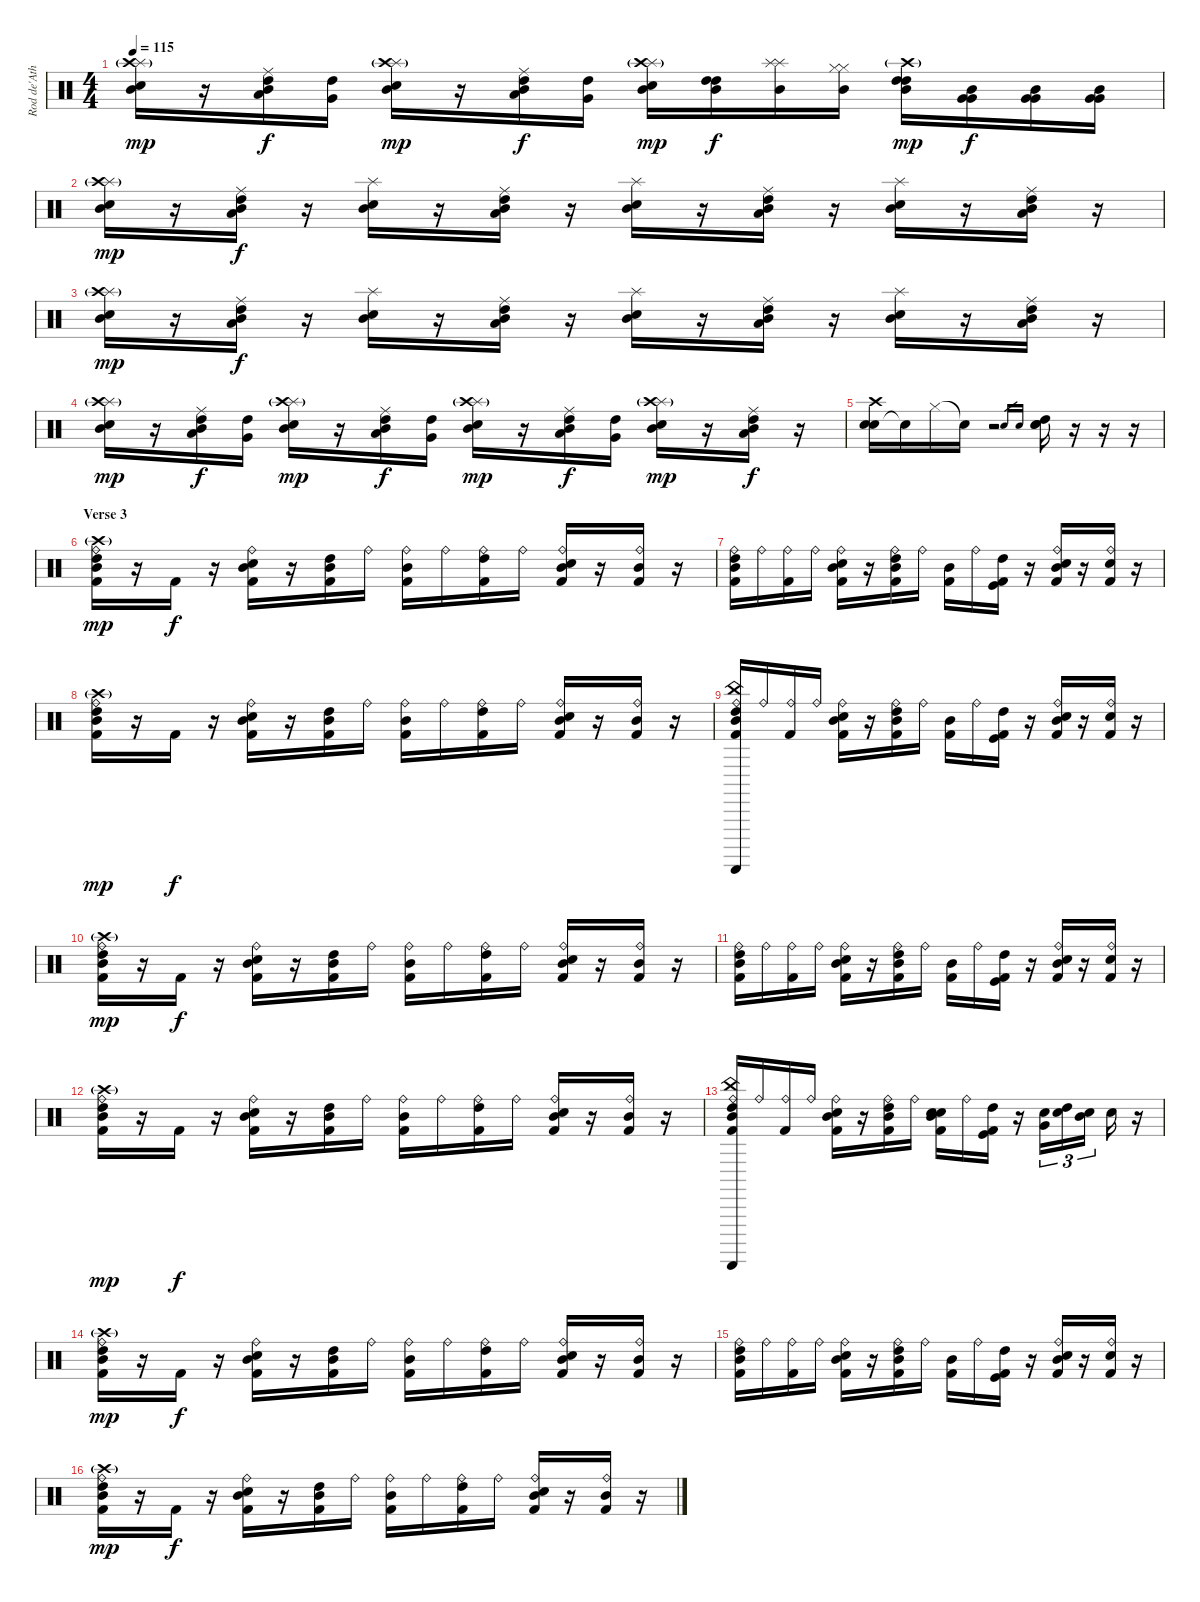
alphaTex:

\track ("Rod de'Ath" "Rod de'Ath") {instrument percussion}
\staff {score}
\articulation defaults
\ts (4 4)
\tempo 115
\clef neutral
\ks c
("Splash (hit)" "Snare (hit) 2" "Crash high (hit)"{g} "Mid Tom (hit)").16{dy mp} r.16 ("Ride (middle)" "Low Tom (hit)" "High Tom (hit)" "Mid Tom (hit)").16{dy f} ("Very Low Tom (hit)" "High Tom (hit)").16 ("Splash (hit)" "Snare (hit) 2" "Crash high (hit)"{g} "Mid Tom (hit)").16{dy mp} r.16 ("Ride (middle)" "Low Tom (hit)" "High Tom (hit)" "Mid Tom (hit)").16{dy f} ("Very Low Tom (hit)" "High Tom (hit)").16 ("Splash (hit)" "Snare (hit) 2" "Crash high (hit)"{g} "Mid Tom (hit)").16{dy mp} ("High Tom (hit)" "High Tom (hit)" "Mid Tom (hit)").16{dy f} ("Splash (hit)" "Splash (hit)" "Mid Tom (hit)").16 ("Hi-Hat (closed)" "Hi-Hat (closed)" "Mid Tom (hit)").16 ("High Tom (hit)" "High Tom (hit)" "Crash high (hit)"{g} "Mid Tom (hit)").16{dy mp} ("Very Low Tom (hit)" "Very Low Tom (hit)" "Mid Tom (hit)").16{dy f} ("Very Low Tom (hit)" "Very Low Tom (hit)" "Mid Tom (hit)").16 ("Very Low Tom (hit)" "Very Low Tom (hit)" "Mid Tom (hit)").16 |
("Splash (hit)" "Snare (hit) 2" "Crash high (hit)"{g} "Mid Tom (hit)").16{dy mp} r.16 ("Ride (middle)" "Low Tom (hit)" "High Tom (hit)" "Mid Tom (hit)").16{dy f} r.16 ("Splash (hit)" "Snare (hit) 2" "Mid Tom (hit)").16 r.16 ("Ride (middle)" "Low Tom (hit)" "High Tom (hit)" "Mid Tom (hit)").16 r.16 ("Splash (hit)" "Snare (hit) 2" "Mid Tom (hit)").16 r.16 ("Ride (middle)" "Low Tom (hit)" "High Tom (hit)" "Mid Tom (hit)").16 r.16 ("Splash (hit)" "Snare (hit) 2" "Mid Tom (hit)").16 r.16 ("Ride (middle)" "Low Tom (hit)" "High Tom (hit)" "Mid Tom (hit)").16 r.16 |
("Splash (hit)" "Snare (hit) 2" "Crash high (hit)"{g} "Mid Tom (hit)").16{dy mp} r.16 ("Ride (middle)" "Low Tom (hit)" "High Tom (hit)" "Mid Tom (hit)").16{dy f} r.16 ("Splash (hit)" "Snare (hit) 2" "Mid Tom (hit)").16 r.16 ("Ride (middle)" "Low Tom (hit)" "High Tom (hit)" "Mid Tom (hit)").16 r.16 ("Splash (hit)" "Snare (hit) 2" "Mid Tom (hit)").16 r.16 ("Ride (middle)" "Low Tom (hit)" "High Tom (hit)" "Mid Tom (hit)").16 r.16 ("Splash (hit)" "Snare (hit) 2" "Mid Tom (hit)").16 r.16 ("Ride (middle)" "Low Tom (hit)" "High Tom (hit)" "Mid Tom (hit)").16 r.16 |
("Splash (hit)" "Snare (hit) 2" "Crash high (hit)"{g} "Mid Tom (hit)").16{dy mp} r.16 ("Ride (middle)" "Low Tom (hit)" "High Tom (hit)" "Mid Tom (hit)").16{dy f} ("Very Low Tom (hit)" "High Tom (hit)").16 ("Splash (hit)" "Snare (hit) 2" "Crash high (hit)"{g} "Mid Tom (hit)").16{dy mp} r.16 ("Ride (middle)" "Low Tom (hit)" "High Tom (hit)" "Mid Tom (hit)").16{dy f} ("Very Low Tom (hit)" "High Tom (hit)").16 ("Splash (hit)" "Snare (hit) 2" "Crash high (hit)"{g} "Mid Tom (hit)").16{dy mp} r.16 ("Ride (middle)" "Low Tom (hit)" "High Tom (hit)" "Mid Tom (hit)").16{dy f} ("Very Low Tom (hit)" "High Tom (hit)").16 ("Splash (hit)" "Snare (hit) 2" "Crash high (hit)"{g} "Mid Tom (hit)").16{dy mp} r.16 ("Ride (middle)" "Low Tom (hit)" "High Tom (hit)" "Mid Tom (hit)").16{dy f} r.16 |
("Electric Snare (hit)" "Snare (hit) 2" "Crash high (hit)").16 "Snare (hit)"{t}.16 "Hi-Hat (closed)".16 "Snare (hit)"{t}.16 r.2 "Snare (hit) 2"{sl}.16{gr} "Electric Snare (hit)"{sl}.16{gr} ("Electric Snare (hit)" "Snare (hit) 2" "High Tom (hit)").16 r.16 r.16 r.16 |
\section ("" "Verse 3")
("Ride (bell)" "High Tom (hit)" "Mid Tom (hit)" "Kick (hit) 2" "Crash high (hit)"{g}).16{dy mp} r.16 "Kick (hit) 2".16{dy f} r.16 ("Ride (bell)" "Snare (hit) 2" "Mid Tom (hit)" "Kick (hit) 2").16 r.16 ("High Tom (hit)" "Mid Tom (hit)" "Kick (hit) 2").16 "Ride (bell)".16 ("Ride (bell)" "Mid Tom (hit)" "Kick (hit) 2").16 "Ride (bell)".16 ("Ride (bell)" "High Tom (hit)" "Kick (hit) 2").16 "Ride (bell)".16 ("Ride (bell)" "Snare (hit) 2" "Mid Tom (hit)" "Kick (hit) 2").16 r.16 ("Ride (bell)" "Mid Tom (hit)" "Kick (hit) 2").16 r.16 |
("Ride (bell)" "High Tom (hit)" "Mid Tom (hit)" "Kick (hit) 2").16 "Ride (bell)".16 ("Ride (bell)" "Kick (hit) 2").16 "Ride (bell)".16 ("Ride (bell)" "Snare (hit) 2" "Mid Tom (hit)" "Kick (hit) 2").16 r.16 ("Ride (bell)" "High Tom (hit)" "Mid Tom (hit)" "Kick (hit) 2").16 "Ride (bell)".16 ("Mid Tom (hit)" "Kick (hit) 2").16 "Ride (bell)".16 ("Kick (hit)" "High Tom (hit)" "Kick (hit) 2").16 r.16 ("Ride (bell)" "Snare (hit) 2" "Mid Tom (hit)" "Kick (hit) 2").16 r.16 ("Ride (bell)" "Electric Snare (hit)" "Kick (hit) 2").16 r.16 |
("Ride (bell)" "High Tom (hit)" "Mid Tom (hit)" "Kick (hit) 2" "Crash high (hit)"{g}).16{dy mp} r.16 "Kick (hit) 2".16{dy f} r.16 ("Ride (bell)" "Snare (hit) 2" "Mid Tom (hit)" "Kick (hit) 2").16 r.16 ("High Tom (hit)" "Mid Tom (hit)" "Kick (hit) 2").16 "Ride (bell)".16 ("Ride (bell)" "Mid Tom (hit)" "Kick (hit) 2").16 "Ride (bell)".16 ("Ride (bell)" "High Tom (hit)" "Kick (hit) 2").16 "Ride (bell)".16 ("Ride (bell)" "Snare (hit) 2" "Mid Tom (hit)" "Kick (hit) 2").16 r.16 ("Ride (bell)" "Mid Tom (hit)" "Kick (hit) 2").16 r.16 |
("Ride (bell)" "China (hit)" "High Tom (hit)" "Mid Tom (hit)" "Kick (hit) 2" "Guiro (scrap-return)").16 "Ride (bell)".16 ("Ride (bell)" "Kick (hit) 2").16 "Ride (bell)".16 ("Ride (bell)" "Snare (hit) 2" "Mid Tom (hit)" "Kick (hit) 2").16 r.16 ("Ride (bell)" "High Tom (hit)" "Mid Tom (hit)" "Kick (hit) 2").16 "Ride (bell)".16 ("Mid Tom (hit)" "Kick (hit) 2").16 "Ride (bell)".16 ("Kick (hit)" "High Tom (hit)" "Kick (hit) 2").16 r.16 ("Ride (bell)" "Snare (hit) 2" "Mid Tom (hit)" "Kick (hit) 2").16 r.16 ("Ride (bell)" "Electric Snare (hit)" "Kick (hit) 2").16 r.16 |
("Ride (bell)" "High Tom (hit)" "Mid Tom (hit)" "Kick (hit) 2" "Crash high (hit)"{g}).16{dy mp} r.16 "Kick (hit) 2".16{dy f} r.16 ("Ride (bell)" "Snare (hit) 2" "Mid Tom (hit)" "Kick (hit) 2").16 r.16 ("High Tom (hit)" "Mid Tom (hit)" "Kick (hit) 2").16 "Ride (bell)".16 ("Ride (bell)" "Mid Tom (hit)" "Kick (hit) 2").16 "Ride (bell)".16 ("Ride (bell)" "High Tom (hit)" "Kick (hit) 2").16 "Ride (bell)".16 ("Ride (bell)" "Snare (hit) 2" "Mid Tom (hit)" "Kick (hit) 2").16 r.16 ("Ride (bell)" "Mid Tom (hit)" "Kick (hit) 2").16 r.16 |
("Ride (bell)" "High Tom (hit)" "Mid Tom (hit)" "Kick (hit) 2").16 "Ride (bell)".16 ("Ride (bell)" "Kick (hit) 2").16 "Ride (bell)".16 ("Ride (bell)" "Snare (hit) 2" "Mid Tom (hit)" "Kick (hit) 2").16 r.16 ("Ride (bell)" "High Tom (hit)" "Mid Tom (hit)" "Kick (hit) 2").16 "Ride (bell)".16 ("Mid Tom (hit)" "Kick (hit) 2").16 "Ride (bell)".16 ("Kick (hit)" "High Tom (hit)" "Kick (hit) 2").16 r.16 ("Ride (bell)" "Snare (hit) 2" "Mid Tom (hit)" "Kick (hit) 2").16 r.16 ("Ride (bell)" "Electric Snare (hit)" "Kick (hit) 2").16 r.16 |
("Ride (bell)" "High Tom (hit)" "Mid Tom (hit)" "Kick (hit) 2" "Crash high (hit)"{g}).16{dy mp} r.16 "Kick (hit) 2".16{dy f} r.16 ("Ride (bell)" "Snare (hit) 2" "Mid Tom (hit)" "Kick (hit) 2").16 r.16 ("High Tom (hit)" "Mid Tom (hit)" "Kick (hit) 2").16 "Ride (bell)".16 ("Ride (bell)" "Mid Tom (hit)" "Kick (hit) 2").16 "Ride (bell)".16 ("Ride (bell)" "High Tom (hit)" "Kick (hit) 2").16 "Ride (bell)".16 ("Ride (bell)" "Snare (hit) 2" "Mid Tom (hit)" "Kick (hit) 2").16 r.16 ("Ride (bell)" "Mid Tom (hit)" "Kick (hit) 2").16 r.16 |
("Ride (bell)" "China (hit)" "High Tom (hit)" "Mid Tom (hit)" "Kick (hit) 2" "Guiro (scrap-return)").16 "Ride (bell)".16 ("Ride (bell)" "Kick (hit) 2").16 "Ride (bell)".16 ("Ride (bell)" "Snare (hit) 2" "Mid Tom (hit)" "Kick (hit) 2").16 r.16 ("Ride (bell)" "High Tom (hit)" "Mid Tom (hit)" "Kick (hit) 2").16 "Ride (bell)".16 ("Electric Snare (hit)" "Electric Snare (hit)" "Mid Tom (hit)" "Kick (hit) 2").16 "Ride (bell)".16 ("Kick (hit)" "High Tom (hit)" "Kick (hit) 2").16 r.16 ("Snare (hit) 2" "Very Low Tom (hit)").16{tu (3 2)} ("Snare (hit) 2" "High Tom (hit)").16{tu (3 2)} ("Snare (hit) 2" "Mid Tom (hit)").16{tu (3 2)} "Electric Snare (hit)".16 r.16 |
("Ride (bell)" "High Tom (hit)" "Mid Tom (hit)" "Kick (hit) 2" "Crash high (hit)"{g}).16{dy mp} r.16 "Kick (hit) 2".16{dy f} r.16 ("Ride (bell)" "Snare (hit) 2" "Mid Tom (hit)" "Kick (hit) 2").16 r.16 ("High Tom (hit)" "Mid Tom (hit)" "Kick (hit) 2").16 "Ride (bell)".16 ("Ride (bell)" "Mid Tom (hit)" "Kick (hit) 2").16 "Ride (bell)".16 ("Ride (bell)" "High Tom (hit)" "Kick (hit) 2").16 "Ride (bell)".16 ("Ride (bell)" "Snare (hit) 2" "Mid Tom (hit)" "Kick (hit) 2").16 r.16 ("Ride (bell)" "Mid Tom (hit)" "Kick (hit) 2").16 r.16 |
("Ride (bell)" "High Tom (hit)" "Mid Tom (hit)" "Kick (hit) 2").16 "Ride (bell)".16 ("Ride (bell)" "Kick (hit) 2").16 "Ride (bell)".16 ("Ride (bell)" "Snare (hit) 2" "Mid Tom (hit)" "Kick (hit) 2").16 r.16 ("Ride (bell)" "High Tom (hit)" "Mid Tom (hit)" "Kick (hit) 2").16 "Ride (bell)".16 ("Mid Tom (hit)" "Kick (hit) 2").16 "Ride (bell)".16 ("Kick (hit)" "High Tom (hit)" "Kick (hit) 2").16 r.16 ("Ride (bell)" "Snare (hit) 2" "Mid Tom (hit)" "Kick (hit) 2").16 r.16 ("Ride (bell)" "Electric Snare (hit)" "Kick (hit) 2").16 r.16 |
("Ride (bell)" "High Tom (hit)" "Mid Tom (hit)" "Kick (hit) 2" "Crash high (hit)"{g}).16{dy mp} r.16 "Kick (hit) 2".16{dy f} r.16 ("Ride (bell)" "Snare (hit) 2" "Mid Tom (hit)" "Kick (hit) 2").16 r.16 ("High Tom (hit)" "Mid Tom (hit)" "Kick (hit) 2").16 "Ride (bell)".16 ("Ride (bell)" "Mid Tom (hit)" "Kick (hit) 2").16 "Ride (bell)".16 ("Ride (bell)" "High Tom (hit)" "Kick (hit) 2").16 "Ride (bell)".16 ("Ride (bell)" "Snare (hit) 2" "Mid Tom (hit)" "Kick (hit) 2").16 r.16 ("Ride (bell)" "Mid Tom (hit)" "Kick (hit) 2").16 r.16
